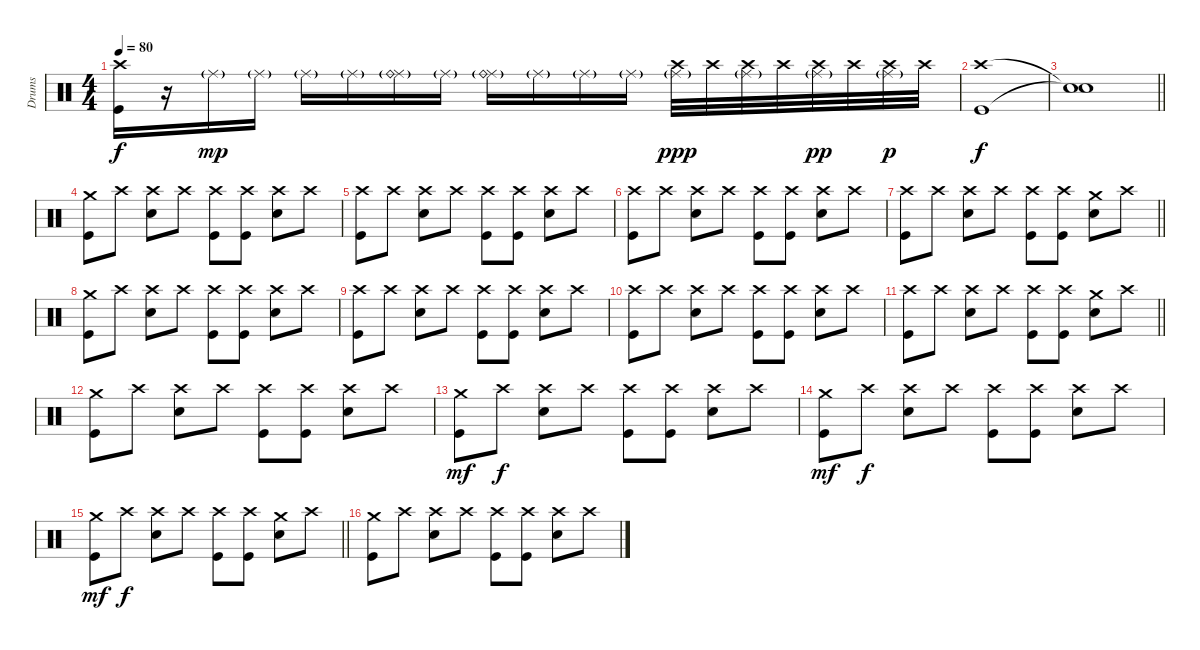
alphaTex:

\track ("Drums" "Drums") {instrument percussion}
\staff {score}
\articulation defaults
\ts (4 4)
\tempo 80
\clef neutral
\ks c
("Crash high (hit)" "Kick (hit)").16{dy f} r.16 "Ride (middle)"{g}.16{dy mp} "Ride (middle)"{g}.16 "Ride (middle)"{g}.16 "Ride (middle)"{g}.16 ("Ride (middle)"{g} "Ride (bell)"{g}).16 "Ride (middle)"{g}.16 ("Ride (middle)"{g} "Ride (bell)"{g}).16 "Ride (middle)"{g}.16 "Ride (middle)"{g}.16 "Ride (middle)"{g}.16 ("Ride (middle)"{g} "Crash high (hit)").32{dy ppp} "Crash high (hit)".32 ("Ride (middle)"{g} "Crash high (hit)").32 "Crash high (hit)".32 ("Ride (middle)"{g} "Crash high (hit)").32{dy pp} "Crash high (hit)".32 ("Ride (middle)"{g} "Crash high (hit)").32{dy p} "Crash high (hit)".32 |
("Crash high (hit)" "Kick (hit)").1{dy f} |
\barLineRight lightlight
("Snare (hit)"{t} "Snare (hit)"{t}).1 |
("Crash medium (hit)" "Kick (hit)").8 "Crash high (hit)".8 ("Crash high (hit)" "Snare (hit) 2").8 "Crash high (hit)".8 ("Crash high (hit)" "Kick (hit)").8 ("Crash high (hit)" "Kick (hit)").8 ("Crash high (hit)" "Snare (hit) 2").8 "Crash high (hit)".8 |
("Crash high (hit)" "Kick (hit)").8 "Crash high (hit)".8 ("Crash high (hit)" "Snare (hit) 2").8 "Crash high (hit)".8 ("Crash high (hit)" "Kick (hit)").8 ("Crash high (hit)" "Kick (hit)").8 ("Crash high (hit)" "Snare (hit) 2").8 "Crash high (hit)".8 |
("Crash high (hit)" "Kick (hit)").8 "Crash high (hit)".8 ("Crash high (hit)" "Snare (hit) 2").8 "Crash high (hit)".8 ("Crash high (hit)" "Kick (hit)").8 ("Crash high (hit)" "Kick (hit)").8 ("Crash high (hit)" "Snare (hit) 2").8 "Crash high (hit)".8 |
\barLineRight lightlight
("Crash high (hit)" "Kick (hit)").8 "Crash high (hit)".8 ("Crash high (hit)" "Snare (hit) 2").8 "Crash high (hit)".8 ("Crash high (hit)" "Kick (hit)").8 ("Crash high (hit)" "Kick (hit)").8 ("Crash medium (hit)" "Snare (hit) 2").8 "Crash high (hit)".8 |
("Crash medium (hit)" "Kick (hit)").8 "Crash high (hit)".8 ("Crash high (hit)" "Snare (hit) 2").8 "Crash high (hit)".8 ("Crash high (hit)" "Kick (hit)").8 ("Crash high (hit)" "Kick (hit)").8 ("Crash high (hit)" "Snare (hit) 2").8 "Crash high (hit)".8 |
("Crash high (hit)" "Kick (hit)").8 "Crash high (hit)".8 ("Crash high (hit)" "Snare (hit) 2").8 "Crash high (hit)".8 ("Crash high (hit)" "Kick (hit)").8 ("Crash high (hit)" "Kick (hit)").8 ("Crash high (hit)" "Snare (hit) 2").8 "Crash high (hit)".8 |
("Crash high (hit)" "Kick (hit)").8 "Crash high (hit)".8 ("Crash high (hit)" "Snare (hit) 2").8 "Crash high (hit)".8 ("Crash high (hit)" "Kick (hit)").8 ("Crash high (hit)" "Kick (hit)").8 ("Crash high (hit)" "Snare (hit) 2").8 "Crash high (hit)".8 |
\barLineRight lightlight
("Crash high (hit)" "Kick (hit)").8 "Crash high (hit)".8 ("Crash high (hit)" "Snare (hit) 2").8 "Crash high (hit)".8 ("Crash high (hit)" "Kick (hit)").8 ("Crash high (hit)" "Kick (hit)").8 ("Crash medium (hit)" "Snare (hit) 2").8 "Crash high (hit)".8 |
("Crash medium (hit)" "Kick (hit)").8 "Crash high (hit)".8 ("Crash high (hit)" "Snare (hit) 2").8 "Crash high (hit)".8 ("Crash high (hit)" "Kick (hit)").8 ("Crash high (hit)" "Kick (hit)").8 ("Crash high (hit)" "Snare (hit) 2").8 "Crash high (hit)".8 |
("Crash medium (hit)" "Kick (hit)").8{dy mf} "Crash high (hit)".8{dy f} ("Crash high (hit)" "Snare (hit) 2").8 "Crash high (hit)".8 ("Crash high (hit)" "Kick (hit)").8 ("Crash high (hit)" "Kick (hit)").8 ("Crash high (hit)" "Snare (hit) 2").8 "Crash high (hit)".8 |
("Crash medium (hit)" "Kick (hit)").8{dy mf} "Crash high (hit)".8{dy f} ("Crash high (hit)" "Snare (hit) 2").8 "Crash high (hit)".8 ("Crash high (hit)" "Kick (hit)").8 ("Crash high (hit)" "Kick (hit)").8 ("Crash high (hit)" "Snare (hit) 2").8 "Crash high (hit)".8 |
\barLineRight lightlight
("Crash medium (hit)" "Kick (hit)").8{dy mf} "Crash high (hit)".8{dy f} ("Crash high (hit)" "Snare (hit) 2").8 "Crash high (hit)".8 ("Crash high (hit)" "Kick (hit)").8 ("Crash high (hit)" "Kick (hit)").8 ("Crash medium (hit)" "Snare (hit) 2").8 "Crash high (hit)".8 |
("Crash medium (hit)" "Kick (hit)").8 "Crash high (hit)".8 ("Crash high (hit)" "Snare (hit) 2").8 "Crash high (hit)".8 ("Crash high (hit)" "Kick (hit)").8 ("Crash high (hit)" "Kick (hit)").8 ("Crash high (hit)" "Snare (hit) 2").8 "Crash high (hit)".8
